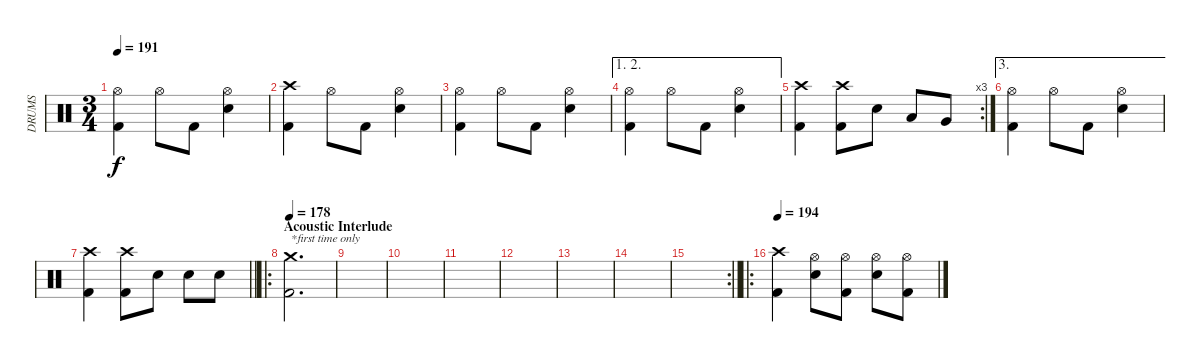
\track ("DRUMS" "DRUMS") {instrument percussion}
\staff {score}
\articulation defaults
\ts (3 4)
\tempo 191
\clef neutral
\ks c
("Hi-Hat (open)" "Kick (hit) 2").4{dy f} "Hi-Hat (open)".8 "Kick (hit) 2".8 ("Hi-Hat (open)" "Snare (hit) 2").4 |
("Crash high (hit)" "Kick (hit) 2").4 "Hi-Hat (open)".8 "Kick (hit) 2".8 ("Hi-Hat (open)" "Snare (hit) 2").4 |
("Hi-Hat (open)" "Kick (hit) 2").4 "Hi-Hat (open)".8 "Kick (hit) 2".8 ("Hi-Hat (open)" "Snare (hit) 2").4 |
\ae (1 2)
("Hi-Hat (open)" "Kick (hit) 2").4 "Hi-Hat (open)".8 "Kick (hit) 2".8 ("Hi-Hat (open)" "Snare (hit) 2").4 |
\rc 3
("Crash high (hit)" "Kick (hit) 2").4 ("Crash high (hit)" "Kick (hit) 2").8 "Snare (hit) 2".8 "Low Tom (hit)".8 "Very Low Tom (hit)".8 |
\ae 3
("Hi-Hat (open)" "Kick (hit) 2").4 "Hi-Hat (open)".8 "Kick (hit) 2".8 ("Hi-Hat (open)" "Snare (hit) 2").4 |
\barLineRight lightlight
("Crash high (hit)" "Kick (hit) 2").4 ("Crash high (hit)" "Kick (hit) 2").8 "Snare (hit) 2".8 "Snare (hit) 2".8 "Snare (hit) 2".8 |
\ro
\section ("" "Acoustic Interlude")
\tempo 178
("Crash medium (hit)" "Kick (hit) 2").2{d txt "*first time only"} |
|
|
|
|
|
|
\rc 2
\barLineRight lightlight
|
\ro
\tempo 194
("Crash high (hit)" "Kick (hit) 2").4 ("Hi-Hat (open)" "Snare (hit) 2").8 ("Hi-Hat (open)" "Kick (hit) 2").8 ("Hi-Hat (open)" "Snare (hit) 2").8 ("Hi-Hat (open)" "Kick (hit) 2").8
